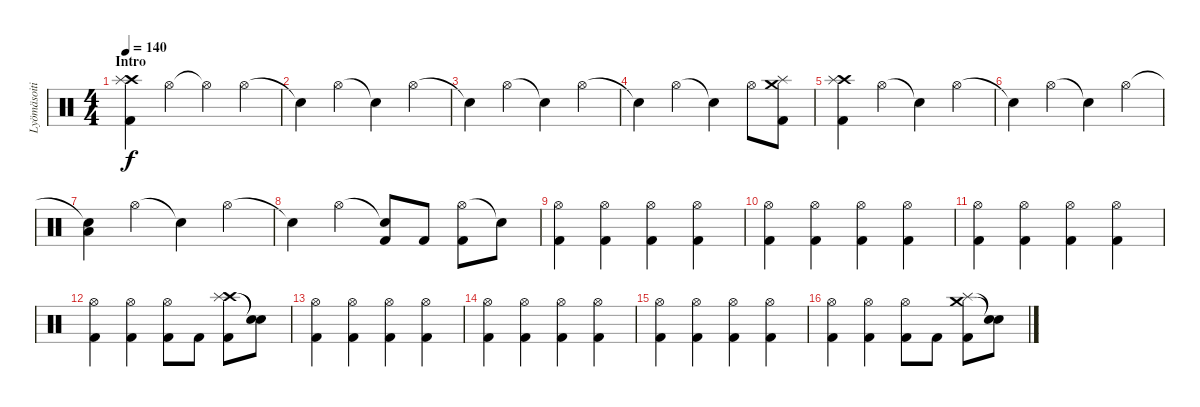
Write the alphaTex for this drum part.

\track ("Lyömäsoitin" "Lyömäsoiti") {instrument percussion}
\staff {score}
\articulation defaults
\ts (4 4)
\section ("" "Intro")
\tempo 140
\clef neutral
\ks c
("Crash high (hit)" "Splash (hit)" "Kick (hit) 2").4{dy f} "Hi-Hat (open)".4 "Hi-Hat (open)"{t}.4 "Hi-Hat (open)".4 |
"Snare (hit)"{t}.4 "Hi-Hat (open)".4 "Snare (hit)"{t}.4 "Hi-Hat (open)".4 |
"Snare (hit)"{t}.4 "Hi-Hat (open)".4 "Snare (hit)"{t}.4 "Hi-Hat (open)".4 |
"Snare (hit)"{t}.4 "Hi-Hat (open)".4 "Snare (hit)"{t}.4 "Hi-Hat (open)".8 ("Crash medium (hit)" "Splash (hit)" "Kick (hit) 2").8 |
("Crash high (hit)" "Splash (hit)" "Kick (hit) 2").4 "Hi-Hat (open)".4 "Snare (hit)"{t}.4 "Hi-Hat (open)".4 |
"Snare (hit)"{t}.4 "Hi-Hat (open)".4 "Snare (hit)"{t}.4 "Hi-Hat (open)".4 |
("Snare (hit)"{t} "Low Floor Tom (hit)").4 "Hi-Hat (open)".4 "Snare (hit)"{t}.4 "Hi-Hat (open)".4 |
"Snare (hit)"{t}.4 "Hi-Hat (open)".4 ("Snare (hit)"{t} "Kick (hit) 2").8 "Kick (hit) 2".8 ("Hi-Hat (open)" "Kick (hit) 2").8 "Snare (hit)"{t}.8 |
("Hi-Hat (open)" "Kick (hit) 2").4 ("Hi-Hat (open)" "Kick (hit) 2").4 ("Hi-Hat (open)" "Kick (hit) 2").4 ("Hi-Hat (open)" "Kick (hit) 2").4 |
("Hi-Hat (open)" "Kick (hit) 2").4 ("Hi-Hat (open)" "Kick (hit) 2").4 ("Hi-Hat (open)" "Kick (hit) 2").4 ("Hi-Hat (open)" "Kick (hit) 2").4 |
("Hi-Hat (open)" "Kick (hit) 2").4 ("Hi-Hat (open)" "Kick (hit) 2").4 ("Hi-Hat (open)" "Kick (hit) 2").4 ("Hi-Hat (open)" "Kick (hit) 2").4 |
("Hi-Hat (open)" "Kick (hit) 2").4 ("Hi-Hat (open)" "Kick (hit) 2").4 ("Hi-Hat (open)" "Kick (hit) 2").8 "Kick (hit) 2".8 ("Crash high (hit)" "Splash (hit)" "Kick (hit) 2").8 ("Snare (hit)"{t} "Snare (hit)"{t}).8 |
("Hi-Hat (open)" "Kick (hit) 2").4 ("Hi-Hat (open)" "Kick (hit) 2").4 ("Hi-Hat (open)" "Kick (hit) 2").4 ("Hi-Hat (open)" "Kick (hit) 2").4 |
("Hi-Hat (open)" "Kick (hit) 2").4 ("Hi-Hat (open)" "Kick (hit) 2").4 ("Hi-Hat (open)" "Kick (hit) 2").4 ("Hi-Hat (open)" "Kick (hit) 2").4 |
("Hi-Hat (open)" "Kick (hit) 2").4 ("Hi-Hat (open)" "Kick (hit) 2").4 ("Hi-Hat (open)" "Kick (hit) 2").4 ("Hi-Hat (open)" "Kick (hit) 2").4 |
("Hi-Hat (open)" "Kick (hit) 2").4 ("Hi-Hat (open)" "Kick (hit) 2").4 ("Hi-Hat (open)" "Kick (hit) 2").8 "Kick (hit) 2".8 ("Splash (hit)" "Crash medium (hit)" "Kick (hit) 2").8 ("Snare (hit)"{t} "Snare (hit)"{t}).8
